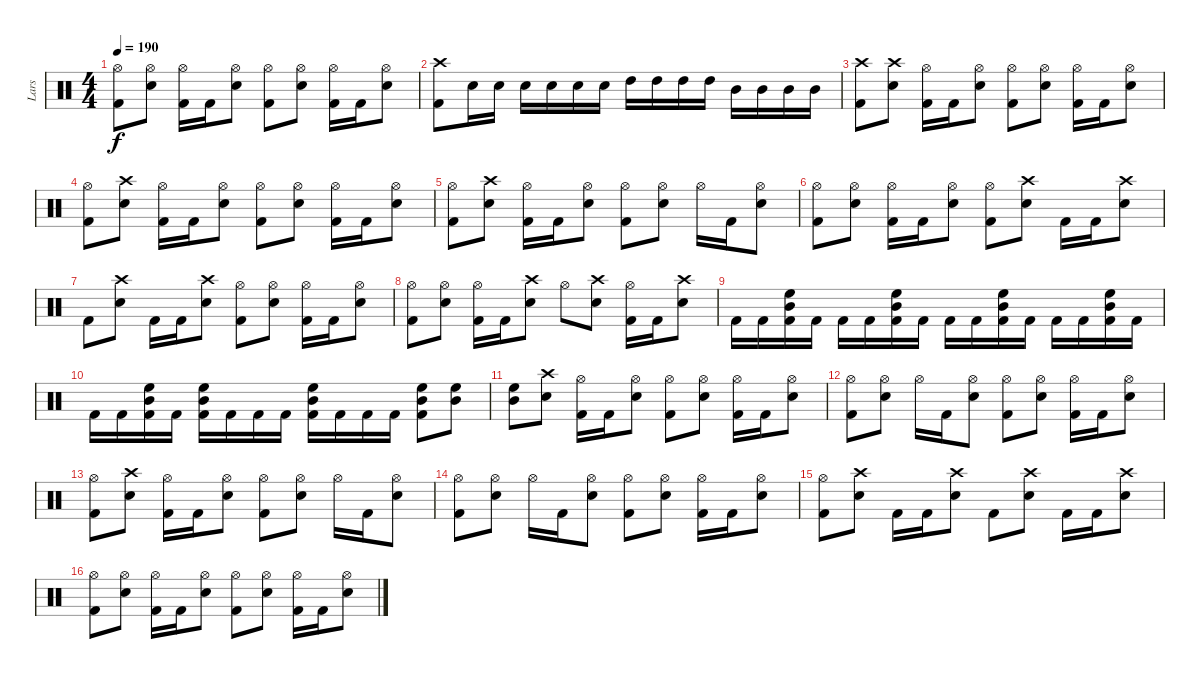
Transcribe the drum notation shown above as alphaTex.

\track ("Lars" "Lars") {instrument percussion}
\staff {score}
\articulation defaults
\ts (4 4)
\tempo 190
\clef neutral
\ks c
("Hi-Hat (open)" "Kick (hit) 2").8{dy f} ("Hi-Hat (open)" "Snare (hit) 2").8 ("Hi-Hat (open)" "Kick (hit) 2").16 "Kick (hit) 2".16 ("Hi-Hat (open)" "Snare (hit) 2").8 ("Hi-Hat (open)" "Kick (hit) 2").8 ("Hi-Hat (open)" "Snare (hit) 2").8 ("Hi-Hat (open)" "Kick (hit) 2").16 "Kick (hit) 2".16 ("Hi-Hat (open)" "Snare (hit) 2").8 |
("Crash high (hit)" "Kick (hit) 2").8 "Snare (hit) 2".16 "Snare (hit) 2".16 "Snare (hit) 2".16 "Snare (hit) 2".16 "Snare (hit) 2".16 "Snare (hit) 2".16 "High Tom (hit)".16 "High Tom (hit)".16 "High Tom (hit)".16 "High Tom (hit)".16 "Mid Tom (hit)".16 "Mid Tom (hit)".16 "Mid Tom (hit)".16 "Mid Tom (hit)".16 |
("Crash high (hit)" "Kick (hit) 2").8 ("Crash high (hit)" "Snare (hit) 2").8 ("Hi-Hat (open)" "Kick (hit) 2").16 "Kick (hit) 2".16 ("Hi-Hat (open)" "Snare (hit) 2").8 ("Hi-Hat (open)" "Kick (hit) 2").8 ("Hi-Hat (open)" "Snare (hit) 2").8 ("Hi-Hat (open)" "Kick (hit) 2").16 "Kick (hit) 2".16 ("Hi-Hat (open)" "Snare (hit) 2").8 |
("Hi-Hat (open)" "Kick (hit) 2").8 ("Crash high (hit)" "Snare (hit) 2").8 ("Hi-Hat (open)" "Kick (hit) 2").16 "Kick (hit) 2".16 ("Hi-Hat (open)" "Snare (hit) 2").8 ("Hi-Hat (open)" "Kick (hit) 2").8 ("Hi-Hat (open)" "Snare (hit) 2").8 ("Hi-Hat (open)" "Kick (hit) 2").16 "Kick (hit) 2".16 ("Hi-Hat (open)" "Snare (hit) 2").8 |
("Hi-Hat (open)" "Kick (hit) 2").8 ("Crash high (hit)" "Snare (hit) 2").8 ("Hi-Hat (open)" "Kick (hit) 2").16 "Kick (hit) 2".16 ("Hi-Hat (open)" "Snare (hit) 2").8 ("Hi-Hat (open)" "Kick (hit) 2").8 ("Hi-Hat (open)" "Snare (hit) 2").8 "Hi-Hat (open)".16 "Kick (hit) 2".16 ("Hi-Hat (open)" "Snare (hit) 2").8 |
("Hi-Hat (open)" "Kick (hit) 2").8 ("Hi-Hat (open)" "Snare (hit) 2").8 ("Hi-Hat (open)" "Kick (hit) 2").16 "Kick (hit) 2".16 ("Hi-Hat (open)" "Snare (hit) 2").8 ("Hi-Hat (open)" "Kick (hit) 2").8 ("Crash high (hit)" "Snare (hit) 2").8 "Kick (hit) 2".16 "Kick (hit) 2".16 ("Crash high (hit)" "Snare (hit) 2").8 |
"Kick (hit) 2".8 ("Crash high (hit)" "Snare (hit) 2").8 "Kick (hit) 2".16 "Kick (hit) 2".16 ("Crash high (hit)" "Snare (hit) 2").8 ("Hi-Hat (open)" "Kick (hit) 2").8 ("Hi-Hat (open)" "Snare (hit) 2").8 ("Hi-Hat (open)" "Kick (hit) 2").16 "Kick (hit) 2".16 ("Hi-Hat (open)" "Snare (hit) 2").8 |
("Hi-Hat (open)" "Kick (hit) 2").8 ("Hi-Hat (open)" "Snare (hit) 2").8 ("Hi-Hat (open)" "Kick (hit) 2").16 "Kick (hit) 2".16 ("Crash high (hit)" "Snare (hit) 2").8 "Hi-Hat (open)".8 ("Crash high (hit)" "Snare (hit) 2").8 ("Hi-Hat (open)" "Kick (hit) 2").16 "Kick (hit) 2".16 ("Crash high (hit)" "Snare (hit) 2").8 |
"Kick (hit) 2".16 "Kick (hit) 2".16 ("High Floor Tom (hit)" "Mid Tom (hit)" "Kick (hit) 2").16 "Kick (hit) 2".16 "Kick (hit) 2".16 "Kick (hit) 2".16 ("High Floor Tom (hit)" "Mid Tom (hit)" "Kick (hit) 2").16 "Kick (hit) 2".16 "Kick (hit) 2".16 "Kick (hit) 2".16 ("High Floor Tom (hit)" "Mid Tom (hit)" "Kick (hit) 2").16 "Kick (hit) 2".16 "Kick (hit) 2".16 "Kick (hit) 2".16 ("High Floor Tom (hit)" "Mid Tom (hit)" "Kick (hit) 2").16 "Kick (hit) 2".16 |
"Kick (hit) 2".16 "Kick (hit) 2".16 ("High Floor Tom (hit)" "Mid Tom (hit)" "Kick (hit) 2").16 "Kick (hit) 2".16 ("High Floor Tom (hit)" "Mid Tom (hit)" "Kick (hit) 2").16 "Kick (hit) 2".16 "Kick (hit) 2".16 "Kick (hit) 2".16 ("High Floor Tom (hit)" "Mid Tom (hit)" "Kick (hit) 2").16 "Kick (hit) 2".16 "Kick (hit) 2".16 "Kick (hit) 2".16 ("High Floor Tom (hit)" "Mid Tom (hit)" "Kick (hit) 2").8 ("High Floor Tom (hit)" "Mid Tom (hit)").8 |
("High Floor Tom (hit)" "Mid Tom (hit)").8 ("Crash high (hit)" "Snare (hit) 2").8 ("Hi-Hat (open)" "Kick (hit) 2").16 "Kick (hit) 2".16 ("Hi-Hat (open)" "Snare (hit) 2").8 ("Hi-Hat (open)" "Kick (hit) 2").8 ("Hi-Hat (open)" "Snare (hit) 2").8 ("Hi-Hat (open)" "Kick (hit) 2").16 "Kick (hit) 2".16 ("Hi-Hat (open)" "Snare (hit) 2").8 |
("Hi-Hat (open)" "Kick (hit) 2").8 ("Hi-Hat (open)" "Snare (hit) 2").8 "Hi-Hat (open)".16 "Kick (hit) 2".16 ("Hi-Hat (open)" "Snare (hit) 2").8 ("Hi-Hat (open)" "Kick (hit) 2").8 ("Hi-Hat (open)" "Snare (hit) 2").8 ("Hi-Hat (open)" "Kick (hit) 2").16 "Kick (hit) 2".16 ("Hi-Hat (open)" "Snare (hit) 2").8 |
("Hi-Hat (open)" "Kick (hit) 2").8 ("Crash high (hit)" "Snare (hit) 2").8 ("Hi-Hat (open)" "Kick (hit) 2").16 "Kick (hit) 2".16 ("Hi-Hat (open)" "Snare (hit) 2").8 ("Hi-Hat (open)" "Kick (hit) 2").8 ("Hi-Hat (open)" "Snare (hit) 2").8 "Hi-Hat (open)".16 "Kick (hit) 2".16 ("Hi-Hat (open)" "Snare (hit) 2").8 |
("Hi-Hat (open)" "Kick (hit) 2").8 ("Hi-Hat (open)" "Snare (hit) 2").8 "Hi-Hat (open)".16 "Kick (hit) 2".16 ("Hi-Hat (open)" "Snare (hit) 2").8 ("Hi-Hat (open)" "Kick (hit) 2").8 ("Hi-Hat (open)" "Snare (hit) 2").8 ("Hi-Hat (open)" "Kick (hit) 2").16 "Kick (hit) 2".16 ("Hi-Hat (open)" "Snare (hit) 2").8 |
("Hi-Hat (open)" "Kick (hit) 2").8 ("Crash high (hit)" "Snare (hit) 2").8 "Kick (hit) 2".16 "Kick (hit) 2".16 ("Crash high (hit)" "Snare (hit) 2").8 "Kick (hit) 2".8 ("Crash high (hit)" "Snare (hit) 2").8 "Kick (hit) 2".16 "Kick (hit) 2".16 ("Crash high (hit)" "Snare (hit) 2").8 |
("Hi-Hat (open)" "Kick (hit) 2").8 ("Hi-Hat (open)" "Snare (hit) 2").8 ("Hi-Hat (open)" "Kick (hit) 2").16 "Kick (hit) 2".16 ("Hi-Hat (open)" "Snare (hit) 2").8 ("Hi-Hat (open)" "Kick (hit) 2").8 ("Hi-Hat (open)" "Snare (hit) 2").8 ("Hi-Hat (open)" "Kick (hit) 2").16 "Kick (hit) 2".16 ("Hi-Hat (open)" "Snare (hit) 2").8
